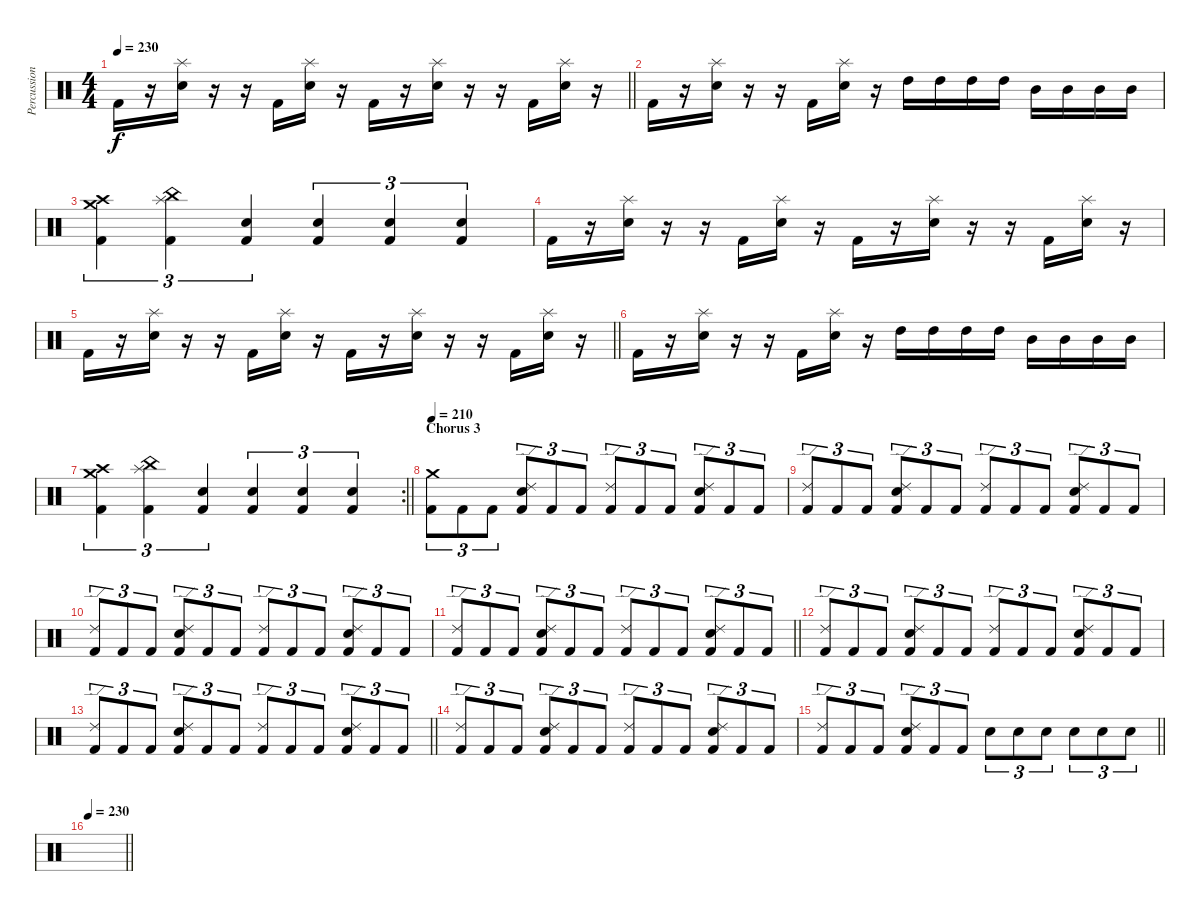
\track ("Percussions" "Percussion") {instrument percussion}
\staff {score}
\articulation defaults
\ts (4 4)
\tempo 230
\clef neutral
\barLineRight lightlight
\ks c "Kick (hit) 2".16{dy f}
r.16 ("Splash (hit)" "Electric Snare (hit)").16 r.16 r.16 "Kick (hit) 2".16 ("Splash (hit)" "Electric Snare (hit)").16 r.16 "Kick (hit) 2".16 r.16 ("Splash (hit)" "Electric Snare (hit)").16 r.16 r.16 "Kick (hit) 2".16 ("Splash (hit)" "Electric Snare (hit)").16 r.16 |
"Kick (hit) 2".16 r.16 ("Splash (hit)" "Electric Snare (hit)").16 r.16 r.16 "Kick (hit) 2".16 ("Splash (hit)" "Electric Snare (hit)").16 r.16 "High Tom (hit)".16 "High Tom (hit)".16 "High Tom (hit)".16 "High Tom (hit)".16 "Mid Tom (hit)".16 "Mid Tom (hit)".16 "Mid Tom (hit)".16 "Mid Tom (hit)".16 |
("Crash high (hit)" "Crash medium (hit)" "Kick (hit) 2").4{tu (3 2)} ("Splash (hit)" "China (hit)" "Kick (hit) 2").4{tu (3 2)} ("Electric Snare (hit)" "Kick (hit) 2").4{tu (3 2)} ("Electric Snare (hit)" "Kick (hit) 2").4{tu (3 2)} ("Electric Snare (hit)" "Kick (hit) 2").4{tu (3 2)} ("Electric Snare (hit)" "Kick (hit) 2").4{tu (3 2)} |
"Kick (hit) 2".16 r.16 ("Splash (hit)" "Electric Snare (hit)").16 r.16 r.16 "Kick (hit) 2".16 ("Splash (hit)" "Electric Snare (hit)").16 r.16 "Kick (hit) 2".16 r.16 ("Splash (hit)" "Electric Snare (hit)").16 r.16 r.16 "Kick (hit) 2".16 ("Splash (hit)" "Electric Snare (hit)").16 r.16 |
\barLineRight lightlight "Kick (hit) 2".16
r.16 ("Splash (hit)" "Electric Snare (hit)").16 r.16 r.16 "Kick (hit) 2".16 ("Splash (hit)" "Electric Snare (hit)").16 r.16 "Kick (hit) 2".16 r.16 ("Splash (hit)" "Electric Snare (hit)").16 r.16 r.16 "Kick (hit) 2".16 ("Splash (hit)" "Electric Snare (hit)").16 r.16 |
"Kick (hit) 2".16 r.16 ("Splash (hit)" "Electric Snare (hit)").16 r.16 r.16 "Kick (hit) 2".16 ("Splash (hit)" "Electric Snare (hit)").16 r.16 "High Tom (hit)".16 "High Tom (hit)".16 "High Tom (hit)".16 "High Tom (hit)".16 "Mid Tom (hit)".16 "Mid Tom (hit)".16 "Mid Tom (hit)".16 "Mid Tom (hit)".16 |
\rc 2
\barLineRight lightlight
("Crash high (hit)" "Crash medium (hit)" "Kick (hit) 2").4{tu (3 2)} ("Splash (hit)" "China (hit)" "Kick (hit) 2").4{tu (3 2)} ("Electric Snare (hit)" "Kick (hit) 2").4{tu (3 2)} ("Electric Snare (hit)" "Kick (hit) 2").4{tu (3 2)} ("Electric Snare (hit)" "Kick (hit) 2").4{tu (3 2)} ("Electric Snare (hit)" "Kick (hit) 2").4{tu (3 2)} |
\section ("" "Chorus 3")
\tempo 210
("Crash medium (hit)" "Kick (hit) 2").8{tu (3 2)} "Kick (hit) 2".8{tu (3 2)} "Kick (hit) 2".8{tu (3 2)} ("Ride (edge) 2" "Electric Snare (hit)" "Kick (hit) 2").8{tu (3 2)} "Kick (hit) 2".8{tu (3 2)} "Kick (hit) 2".8{tu (3 2)} ("Ride (edge) 2" "Kick (hit) 2").8{tu (3 2)} "Kick (hit) 2".8{tu (3 2)} "Kick (hit) 2".8{tu (3 2)} ("Ride (edge) 2" "Electric Snare (hit)" "Kick (hit) 2").8{tu (3 2)} "Kick (hit) 2".8{tu (3 2)} "Kick (hit) 2".8{tu (3 2)} |
("Ride (edge) 2" "Kick (hit) 2").8{tu (3 2)} "Kick (hit) 2".8{tu (3 2)} "Kick (hit) 2".8{tu (3 2)} ("Ride (edge) 2" "Electric Snare (hit)" "Kick (hit) 2").8{tu (3 2)} "Kick (hit) 2".8{tu (3 2)} "Kick (hit) 2".8{tu (3 2)} ("Ride (edge) 2" "Kick (hit) 2").8{tu (3 2)} "Kick (hit) 2".8{tu (3 2)} "Kick (hit) 2".8{tu (3 2)} ("Ride (edge) 2" "Electric Snare (hit)" "Kick (hit) 2").8{tu (3 2)} "Kick (hit) 2".8{tu (3 2)} "Kick (hit) 2".8{tu (3 2)} |
("Ride (edge) 2" "Kick (hit) 2").8{tu (3 2)} "Kick (hit) 2".8{tu (3 2)} "Kick (hit) 2".8{tu (3 2)} ("Ride (edge) 2" "Electric Snare (hit)" "Kick (hit) 2").8{tu (3 2)} "Kick (hit) 2".8{tu (3 2)} "Kick (hit) 2".8{tu (3 2)} ("Ride (edge) 2" "Kick (hit) 2").8{tu (3 2)} "Kick (hit) 2".8{tu (3 2)} "Kick (hit) 2".8{tu (3 2)} ("Ride (edge) 2" "Electric Snare (hit)" "Kick (hit) 2").8{tu (3 2)} "Kick (hit) 2".8{tu (3 2)} "Kick (hit) 2".8{tu (3 2)} |
\barLineRight lightlight
("Ride (edge) 2" "Kick (hit) 2").8{tu (3 2)} "Kick (hit) 2".8{tu (3 2)} "Kick (hit) 2".8{tu (3 2)} ("Ride (edge) 2" "Electric Snare (hit)" "Kick (hit) 2").8{tu (3 2)} "Kick (hit) 2".8{tu (3 2)} "Kick (hit) 2".8{tu (3 2)} ("Ride (edge) 2" "Kick (hit) 2").8{tu (3 2)} "Kick (hit) 2".8{tu (3 2)} "Kick (hit) 2".8{tu (3 2)} ("Ride (edge) 2" "Electric Snare (hit)" "Kick (hit) 2").8{tu (3 2)} "Kick (hit) 2".8{tu (3 2)} "Kick (hit) 2".8{tu (3 2)} |
\section ("" "")
("Ride (edge) 2" "Kick (hit) 2").8{tu (3 2)} "Kick (hit) 2".8{tu (3 2)} "Kick (hit) 2".8{tu (3 2)} ("Ride (edge) 2" "Electric Snare (hit)" "Kick (hit) 2").8{tu (3 2)} "Kick (hit) 2".8{tu (3 2)} "Kick (hit) 2".8{tu (3 2)} ("Ride (edge) 2" "Kick (hit) 2").8{tu (3 2)} "Kick (hit) 2".8{tu (3 2)} "Kick (hit) 2".8{tu (3 2)} ("Ride (edge) 2" "Electric Snare (hit)" "Kick (hit) 2").8{tu (3 2)} "Kick (hit) 2".8{tu (3 2)} "Kick (hit) 2".8{tu (3 2)} |
\barLineRight lightlight
("Ride (edge) 2" "Kick (hit) 2").8{tu (3 2)} "Kick (hit) 2".8{tu (3 2)} "Kick (hit) 2".8{tu (3 2)} ("Ride (edge) 2" "Electric Snare (hit)" "Kick (hit) 2").8{tu (3 2)} "Kick (hit) 2".8{tu (3 2)} "Kick (hit) 2".8{tu (3 2)} ("Ride (edge) 2" "Kick (hit) 2").8{tu (3 2)} "Kick (hit) 2".8{tu (3 2)} "Kick (hit) 2".8{tu (3 2)} ("Ride (edge) 2" "Electric Snare (hit)" "Kick (hit) 2").8{tu (3 2)} "Kick (hit) 2".8{tu (3 2)} "Kick (hit) 2".8{tu (3 2)} |
("Ride (edge) 2" "Kick (hit) 2").8{tu (3 2)} "Kick (hit) 2".8{tu (3 2)} "Kick (hit) 2".8{tu (3 2)} ("Ride (edge) 2" "Electric Snare (hit)" "Kick (hit) 2").8{tu (3 2)} "Kick (hit) 2".8{tu (3 2)} "Kick (hit) 2".8{tu (3 2)} ("Ride (edge) 2" "Kick (hit) 2").8{tu (3 2)} "Kick (hit) 2".8{tu (3 2)} "Kick (hit) 2".8{tu (3 2)} ("Ride (edge) 2" "Electric Snare (hit)" "Kick (hit) 2").8{tu (3 2)} "Kick (hit) 2".8{tu (3 2)} "Kick (hit) 2".8{tu (3 2)} |
\barLineRight lightlight
("Ride (edge) 2" "Kick (hit) 2").8{tu (3 2)} "Kick (hit) 2".8{tu (3 2)} "Kick (hit) 2".8{tu (3 2)} ("Ride (edge) 2" "Electric Snare (hit)" "Kick (hit) 2").8{tu (3 2)} "Kick (hit) 2".8{tu (3 2)} "Kick (hit) 2".8{tu (3 2)} "Electric Snare (hit)".8{tu (3 2)} "Electric Snare (hit)".8{tu (3 2)} "Electric Snare (hit)".8{tu (3 2)} "Electric Snare (hit)".8{tu (3 2)} "Electric Snare (hit)".8{tu (3 2)} "Electric Snare (hit)".8{tu (3 2)} |
\tempo 230
\barLineRight lightlight
